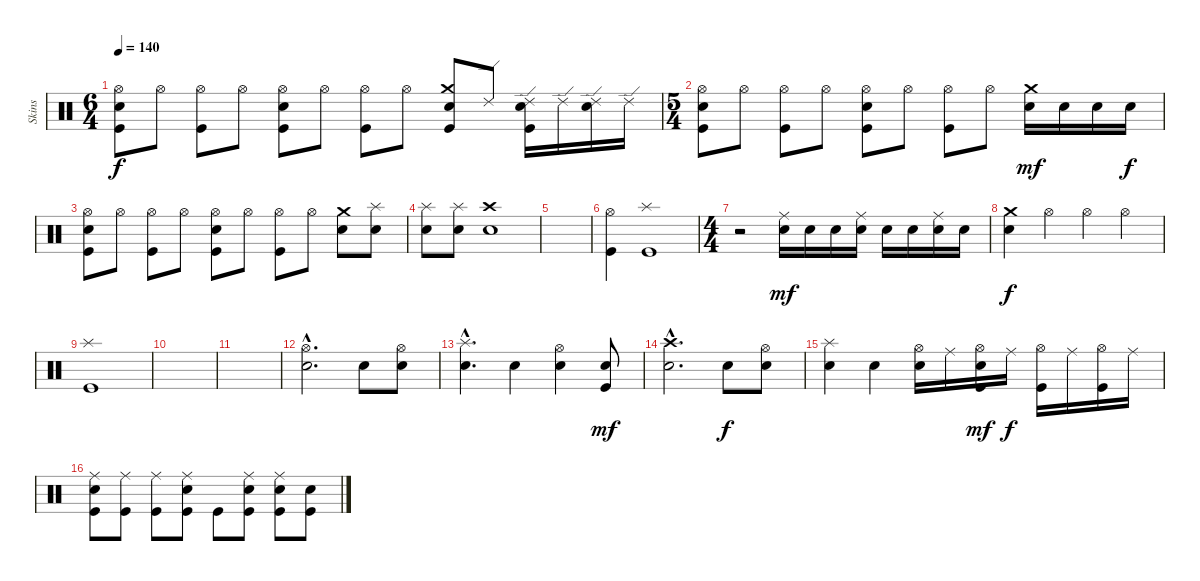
\track ("Skins" "Skins") {instrument percussion}
\staff {score}
\articulation defaults
\ts (6 4)
\tempo 140
\clef neutral
\ks c
("Hi-Hat (open)" "Snare (hit) 2" "Kick (hit)").8{dy f} "Hi-Hat (open)".8 ("Hi-Hat (open)" "Kick (hit)").8 "Hi-Hat (open)".8 ("Hi-Hat (open)" "Snare (hit) 2" "Kick (hit)").8 "Hi-Hat (open)".8 ("Hi-Hat (open)" "Kick (hit)").8 "Hi-Hat (open)".8 ("Crash medium (hit)" "Electric Snare (hit)" "Kick (hit)").8 "Ride (edge) 2".8 ("Ride (edge) 2" "Snare (hit) 2" "Kick (hit)").16 "Ride (edge) 2".16 ("Ride (edge) 2" "Snare (hit) 2").16 "Ride (edge) 2".16 |
\ts (5 4)
("Hi-Hat (open)" "Snare (hit) 2" "Kick (hit)").8 "Hi-Hat (open)".8 ("Hi-Hat (open)" "Kick (hit)").8 "Hi-Hat (open)".8 ("Hi-Hat (open)" "Snare (hit) 2" "Kick (hit)").8 "Hi-Hat (open)".8 ("Hi-Hat (open)" "Kick (hit)").8 "Hi-Hat (open)".8 ("Crash medium (hit)" "Electric Snare (hit)").16{dy mf} "Electric Snare (hit)".16 "Electric Snare (hit)".16 "Electric Snare (hit)".16{dy f} |
("Hi-Hat (open)" "Snare (hit) 2" "Kick (hit)").8 "Hi-Hat (open)".8 ("Hi-Hat (open)" "Kick (hit)").8 "Hi-Hat (open)".8 ("Hi-Hat (open)" "Snare (hit) 2" "Kick (hit)").8 "Hi-Hat (open)".8 ("Hi-Hat (open)" "Kick (hit)").8 "Hi-Hat (open)".8 ("Crash medium (hit)" "Electric Snare (hit)").8 ("Splash (hit)" "Electric Snare (hit)").8 |
("Splash (hit)" "Snare (hit) 2").8 ("Splash (hit)" "Snare (hit) 2").8 ("Crash high (hit)" "Electric Snare (hit)").1 |
|
("Hi-Hat (open)" "Kick (hit)").4 ("Splash (hit)" "Kick (hit)").1 |
\ts (4 4)
r.2 ("Ride (middle)" "Snare (hit) 2").16{dy mf} "Snare (hit) 2".16 "Snare (hit) 2".16 ("Ride (middle)" "Snare (hit) 2").16 "Snare (hit) 2".16 "Snare (hit) 2".16 ("Ride (middle)" "Snare (hit) 2").16 "Snare (hit) 2".16 |
("Crash medium (hit)" "Snare (hit) 2").4{dy f} "Hi-Hat (open)".4 "Hi-Hat (open)".4 "Hi-Hat (open)".4 |
("Splash (hit)" "Kick (hit)").1 |
|
|
("Hi-Hat (open)"{hac} "Snare (hit) 2"{hac}).2{d} "Snare (hit) 2".8 ("Hi-Hat (open)" "Snare (hit) 2").8 |
("Splash (hit)"{hac} "Electric Snare (hit)"{hac}).4{d} "Snare (hit) 2".4 ("Hi-Hat (open)" "Snare (hit) 2").4 ("Electric Snare (hit)" "Kick (hit)").8{dy mf} |
("Crash high (hit)"{hac} "Snare (hit) 2"{hac}).2{d} "Snare (hit) 2".8{dy f} ("Hi-Hat (open)" "Snare (hit) 2").8 |
("Splash (hit)" "Electric Snare (hit)").4 "Snare (hit) 2".4 ("Hi-Hat (open)" "Snare (hit) 2").16 "Ride (middle)".16 ("Hi-Hat (open)" "Electric Snare (hit)" "Kick (hit)").16{dy mf} "Ride (middle)".16{dy f} ("Hi-Hat (open)" "Kick (hit)").16 "Ride (middle)".16 ("Hi-Hat (open)" "Kick (hit)").16 "Ride (middle)".16 |
("Ride (middle)" "Snare (hit) 2" "Kick (hit)").8 ("Ride (middle)" "Kick (hit)").8 ("Ride (middle)" "Kick (hit)").8 ("Ride (middle)" "Snare (hit) 2" "Kick (hit)").8 "Kick (hit)".8 ("Ride (middle)" "Snare (hit) 2" "Kick (hit)").8 ("Ride (middle)" "Snare (hit) 2" "Kick (hit)").8 ("Electric Snare (hit)" "Kick (hit)").8
